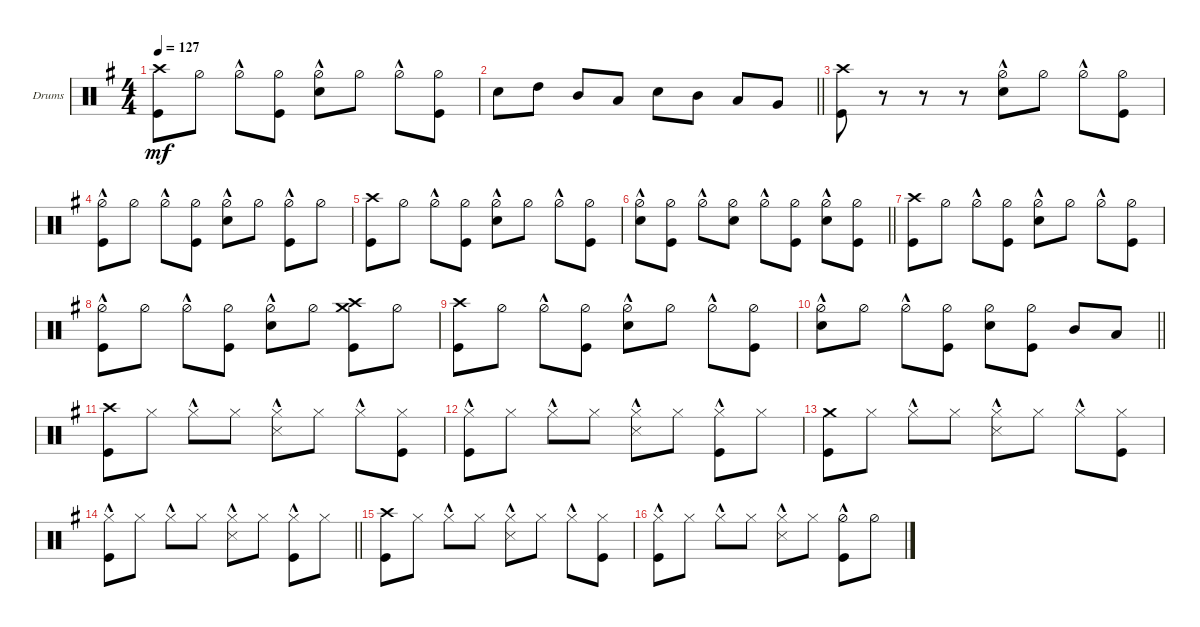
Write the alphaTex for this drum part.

\bracketExtendMode groupsimilarinstruments
\firstSystemTrackNameOrientation horizontal
\otherSystemsTrackNameOrientation horizontal
\track ("drums (Anton Zulganov)" "Drums") {instrument percussion}
\staff {score}
\articulation defaults
\ts (4 4)
\tempo 127
\clef neutral
\ks eminor
("Kick (hit)" "Crash high (hit)").8{dy mf} "Hi-Hat (half)".8 "Hi-Hat (half)"{hac}.8 ("Hi-Hat (half)" "Kick (hit)").8 ("Hi-Hat (half)"{hac} "Snare (hit) 2").8 "Hi-Hat (half)".8 "Hi-Hat (half)"{hac}.8 ("Hi-Hat (half)" "Kick (hit)").8 |
\barLineRight lightlight "Snare (hit) 2".8 "High Tom (hit)".8 "Mid Tom (hit)".8 "Low Tom (hit)".8 "Snare (hit) 2".8 "Mid Tom (hit)".8 "Low Tom (hit)".8 "Very Low Tom (hit)".8
|
("Kick (hit)" "Crash high (hit)").8 r.8 r.8 r.8 ("Hi-Hat (half)"{hac} "Snare (hit) 2").8 "Hi-Hat (half)".8 "Hi-Hat (half)"{hac}.8 ("Hi-Hat (half)" "Kick (hit)").8 |
("Hi-Hat (half)"{hac} "Kick (hit)").8 "Hi-Hat (half)".8 "Hi-Hat (half)"{hac}.8 ("Hi-Hat (half)" "Kick (hit)").8 ("Hi-Hat (half)"{hac} "Snare (hit) 2").8 "Hi-Hat (half)".8 ("Hi-Hat (half)"{hac} "Kick (hit)").8 "Hi-Hat (half)".8 |
("Kick (hit)" "Crash high (hit)").8 "Hi-Hat (half)".8 "Hi-Hat (half)"{hac}.8 ("Hi-Hat (half)" "Kick (hit)").8 ("Hi-Hat (half)"{hac} "Snare (hit) 2").8 "Hi-Hat (half)".8 "Hi-Hat (half)"{hac}.8 ("Hi-Hat (half)" "Kick (hit)").8 |
\barLineRight lightlight
("Hi-Hat (half)"{hac} "Snare (hit) 2").8 ("Hi-Hat (half)" "Kick (hit)").8 "Hi-Hat (half)"{hac}.8 ("Hi-Hat (half)" "Snare (hit) 2").8 "Hi-Hat (half)"{hac}.8 ("Hi-Hat (half)" "Kick (hit)").8 ("Hi-Hat (half)"{hac} "Snare (hit) 2").8 ("Hi-Hat (half)" "Kick (hit)").8 |
("Kick (hit)" "Crash high (hit)").8 "Hi-Hat (half)".8 "Hi-Hat (half)"{hac}.8 ("Hi-Hat (half)" "Kick (hit)").8 ("Hi-Hat (half)"{hac} "Snare (hit) 2").8 "Hi-Hat (half)".8 "Hi-Hat (half)"{hac}.8 ("Hi-Hat (half)" "Kick (hit)").8 |
("Hi-Hat (half)"{hac} "Kick (hit)").8 "Hi-Hat (half)".8 "Hi-Hat (half)"{hac}.8 ("Hi-Hat (half)" "Kick (hit)").8 ("Hi-Hat (half)"{hac} "Snare (hit) 2").8 "Hi-Hat (half)".8 ("Kick (hit)" "Crash medium (hit)" "Crash high (hit)").8 "Hi-Hat (half)".8 |
("Kick (hit)" "Crash high (hit)").8 "Hi-Hat (half)".8 "Hi-Hat (half)"{hac}.8 ("Hi-Hat (half)" "Kick (hit)").8 ("Hi-Hat (half)"{hac} "Snare (hit) 2").8 "Hi-Hat (half)".8 "Hi-Hat (half)"{hac}.8 ("Hi-Hat (half)" "Kick (hit)").8 |
\barLineRight lightlight
("Hi-Hat (half)"{hac} "Snare (hit) 2").8 "Hi-Hat (half)".8 "Hi-Hat (half)"{hac}.8 ("Kick (hit)" "Hi-Hat (half)").8 ("Snare (hit) 2" "Hi-Hat (half)").8 ("Kick (hit)" "Hi-Hat (half)").8 "Mid Tom (hit)".8 "Low Tom (hit)".8 |
("Kick (hit)" "Crash high (hit)").8 "Hi-Hat (closed)".8 "Hi-Hat (closed)"{hac}.8 "Hi-Hat (closed)".8 ("Hi-Hat (closed)"{hac} "Snare (side stick) 3").8 "Hi-Hat (closed)".8 "Hi-Hat (closed)"{hac}.8 ("Hi-Hat (closed)" "Kick (hit)").8 |
("Hi-Hat (closed)"{hac} "Kick (hit)").8 "Hi-Hat (closed)".8 "Hi-Hat (closed)"{hac}.8 "Hi-Hat (closed)".8 ("Hi-Hat (closed)"{hac} "Snare (side stick) 3").8 "Hi-Hat (closed)".8 ("Hi-Hat (closed)"{hac} "Kick (hit)").8 "Hi-Hat (closed)".8 |
("Kick (hit)" "Crash medium (hit)").8 "Hi-Hat (closed)".8 "Hi-Hat (closed)"{hac}.8 "Hi-Hat (closed)".8 ("Hi-Hat (closed)"{hac} "Snare (side stick) 3").8 "Hi-Hat (closed)".8 "Hi-Hat (closed)"{hac}.8 ("Hi-Hat (closed)" "Kick (hit)").8 |
\barLineRight lightlight
("Hi-Hat (closed)"{hac} "Kick (hit)").8 "Hi-Hat (closed)".8 "Hi-Hat (closed)"{hac}.8 "Hi-Hat (closed)".8 ("Hi-Hat (closed)"{hac} "Snare (side stick) 3").8 "Hi-Hat (closed)".8 ("Hi-Hat (closed)"{hac} "Kick (hit)").8 "Hi-Hat (closed)".8 |
("Kick (hit)" "Crash high (hit)").8 "Hi-Hat (closed)".8 "Hi-Hat (closed)"{hac}.8 "Hi-Hat (closed)".8 ("Hi-Hat (closed)"{hac} "Snare (side stick) 3").8 "Hi-Hat (closed)".8 "Hi-Hat (closed)"{hac}.8 ("Hi-Hat (closed)" "Kick (hit)").8 |
("Hi-Hat (closed)"{hac} "Kick (hit)").8 "Hi-Hat (closed)".8 "Hi-Hat (closed)"{hac}.8 "Hi-Hat (closed)".8 ("Hi-Hat (closed)"{hac} "Snare (side stick) 3").8 "Hi-Hat (closed)".8 ("Hi-Hat (half)"{hac} "Kick (hit)").8 "Hi-Hat (half)".8
